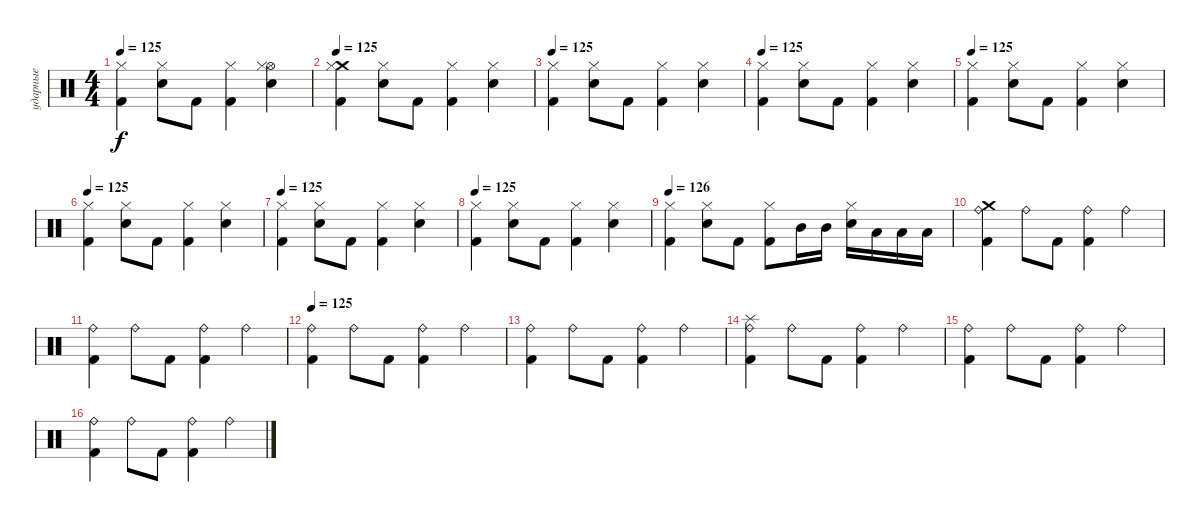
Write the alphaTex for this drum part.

\track ("ударные" "ударные") {instrument percussion}
\staff {score}
\articulation defaults
\ts (4 4)
\tempo 125
\clef neutral
\ks c
("Kick (hit) 2" "Hi-Hat (closed)").4{dy f} ("Electric Snare (hit)" "Hi-Hat (closed)").8 "Kick (hit) 2".8 ("Kick (hit) 2" "Hi-Hat (closed)").4 ("Hi-Hat (open)" "Electric Snare (hit)" "Hi-Hat (closed)").4 |
\tempo 125
("Crash medium (hit)" "Kick (hit) 2" "Hi-Hat (closed)").4 ("Electric Snare (hit)" "Hi-Hat (closed)").8 "Kick (hit) 2".8 ("Kick (hit) 2" "Hi-Hat (closed)").4 ("Electric Snare (hit)" "Hi-Hat (closed)").4 |
\tempo 125
("Kick (hit) 2" "Hi-Hat (closed)").4 ("Hi-Hat (closed)" "Electric Snare (hit)").8 "Kick (hit) 2".8 ("Hi-Hat (closed)" "Kick (hit) 2").4 ("Electric Snare (hit)" "Hi-Hat (closed)").4 |
\tempo 125
("Kick (hit) 2" "Hi-Hat (closed)").4 ("Hi-Hat (closed)" "Electric Snare (hit)").8 "Kick (hit) 2".8 ("Kick (hit) 2" "Hi-Hat (closed)").4 ("Hi-Hat (closed)" "Electric Snare (hit)").4 |
\tempo 125
("Kick (hit) 2" "Hi-Hat (closed)").4 ("Hi-Hat (closed)" "Electric Snare (hit)").8 "Kick (hit) 2".8 ("Hi-Hat (closed)" "Kick (hit) 2").4 ("Electric Snare (hit)" "Hi-Hat (closed)").4 |
\tempo 125
("Hi-Hat (closed)" "Kick (hit) 2").4 ("Electric Snare (hit)" "Hi-Hat (closed)").8 "Kick (hit) 2".8 ("Hi-Hat (closed)" "Kick (hit) 2").4 ("Hi-Hat (closed)" "Electric Snare (hit)").4 |
\tempo 125
("Hi-Hat (closed)" "Kick (hit) 2").4 ("Hi-Hat (closed)" "Electric Snare (hit)").8 "Kick (hit) 2".8 ("Hi-Hat (closed)" "Kick (hit) 2").4 ("Electric Snare (hit)" "Hi-Hat (closed)").4 |
\tempo 125
("Kick (hit) 2" "Hi-Hat (closed)").4 ("Hi-Hat (closed)" "Electric Snare (hit)").8 "Kick (hit) 2".8 ("Kick (hit) 2" "Hi-Hat (closed)").4 ("Electric Snare (hit)" "Hi-Hat (closed)").4 |
\tempo 126
("Kick (hit) 2" "Hi-Hat (closed)").4 ("Hi-Hat (closed)" "Electric Snare (hit)").8 "Kick (hit) 2".8 ("Kick (hit) 2" "Hi-Hat (closed)").8 "Mid Tom (hit)".16 "Mid Tom (hit)".16 ("Hi-Hat (closed)" "Electric Snare (hit)").16 "Low Floor Tom (hit)".16 "Low Floor Tom (hit)".16 "Low Floor Tom (hit)".16 |
("Crash medium (hit)" "Ride (bell)" "Kick (hit) 2").4 "Ride (bell)".8 "Kick (hit) 2".8 ("Kick (hit) 2" "Ride (bell)").4 "Ride (bell)".4 |
("Ride (bell)" "Kick (hit) 2").4 "Ride (bell)".8 "Kick (hit) 2".8 ("Ride (bell)" "Kick (hit) 2").4 "Ride (bell)".4 |
\tempo 125
("Ride (bell)" "Kick (hit) 2").4 "Ride (bell)".8 "Kick (hit) 2".8 ("Ride (bell)" "Kick (hit) 2").4 "Ride (bell)".4 |
("Kick (hit) 2" "Ride (bell)").4 "Ride (bell)".8 "Kick (hit) 2".8 ("Ride (bell)" "Kick (hit) 2").4 "Ride (bell)".4 |
("Splash (hit)" "Kick (hit) 2" "Ride (bell)").4 "Ride (bell)".8 "Kick (hit) 2".8 ("Ride (bell)" "Kick (hit) 2").4 "Ride (bell)".4 |
("Kick (hit) 2" "Ride (bell)").4 "Ride (bell)".8 "Kick (hit) 2".8 ("Kick (hit) 2" "Ride (bell)").4 "Ride (bell)".4 |
("Kick (hit) 2" "Ride (bell)").4 "Ride (bell)".8 "Kick (hit) 2".8 ("Kick (hit) 2" "Ride (bell)").4 "Ride (bell)".4
